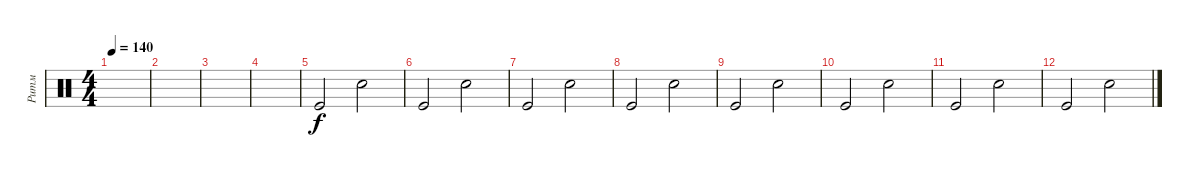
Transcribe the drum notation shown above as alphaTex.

\track ("Ритм" "Ритм") {instrument percussion}
\staff {score}
\articulation defaults
\ts (4 4)
\tempo 140
\clef neutral
\ks c
|
|
|
|
"Kick (hit)".2 "Electric Snare (hit)".2 |
"Kick (hit)".2 "Electric Snare (hit)".2 |
"Kick (hit)".2 "Electric Snare (hit)".2 |
"Kick (hit)".2 "Electric Snare (hit)".2 |
"Kick (hit)".2 "Electric Snare (hit)".2 |
"Kick (hit)".2 "Electric Snare (hit)".2 |
"Kick (hit)".2 "Electric Snare (hit)".2 |
"Kick (hit)".2 "Electric Snare (hit)".2
